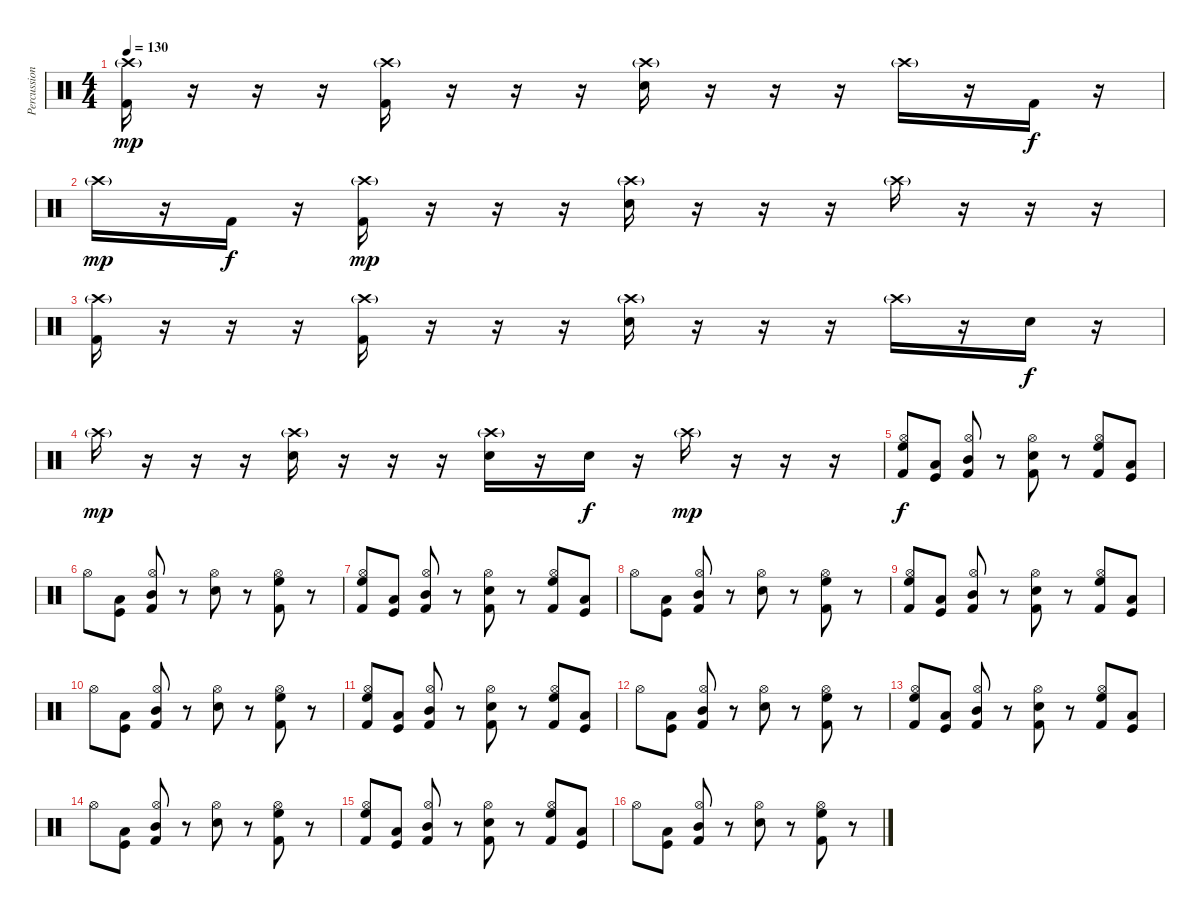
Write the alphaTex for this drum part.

\track ("Percussion" "Percussion") {instrument percussion}
\staff {score}
\articulation defaults
\ts (4 4)
\tempo 130
\clef neutral
\ks c
("Crash high (hit)"{g} "Kick (hit) 2").16{dy mp} r.16 r.16 r.16 ("Crash high (hit)"{g} "Kick (hit) 2").16 r.16 r.16 r.16 ("Crash high (hit)"{g} "Snare (hit) 2").16 r.16 r.16 r.16 "Crash high (hit)"{g}.16 r.16 "Kick (hit) 2".16{dy f} r.16 |
"Crash high (hit)"{g}.16{dy mp} r.16 "Kick (hit) 2".16{dy f} r.16 ("Crash high (hit)"{g} "Kick (hit) 2").16{dy mp} r.16 r.16 r.16 ("Crash high (hit)"{g} "Snare (hit) 2").16 r.16 r.16 r.16 "Crash high (hit)"{g}.16 r.16 r.16 r.16 |
("Crash high (hit)"{g} "Kick (hit) 2").16 r.16 r.16 r.16 ("Crash high (hit)"{g} "Kick (hit) 2").16 r.16 r.16 r.16 ("Crash high (hit)"{g} "Snare (hit) 2").16 r.16 r.16 r.16 "Crash high (hit)"{g}.16 r.16 "Snare (hit) 2".16{dy f} r.16 |
"Crash high (hit)"{g}.16{dy mp} r.16 r.16 r.16 ("Crash high (hit)"{g} "Snare (hit) 2").16 r.16 r.16 r.16 ("Crash high (hit)"{g} "Snare (hit) 2").16 r.16 "Snare (hit) 2".16{dy f} r.16 "Crash high (hit)"{g}.16{dy mp} r.16 r.16 r.16 |
("Hi-Hat (open)" "High Floor Tom (hit)" "Kick (hit) 2").8{dy f} ("Low Tom (hit)" "Kick (hit)").8 ("Hi-Hat (open)" "Mid Tom (hit)" "Kick (hit) 2").8 r.8 ("Hi-Hat (open)" "Snare (hit) 2" "Kick (hit) 2").8 r.8 ("Hi-Hat (open)" "High Floor Tom (hit)" "Kick (hit) 2").8 ("Low Tom (hit)" "Kick (hit)").8 |
"Hi-Hat (open)".8 ("Low Tom (hit)" "Kick (hit)").8 ("Hi-Hat (open)" "Mid Tom (hit)" "Kick (hit) 2").8 r.8 ("Hi-Hat (open)" "Snare (hit) 2").8 r.8 ("Hi-Hat (open)" "High Floor Tom (hit)" "Kick (hit) 2").8 r.8 |
("Hi-Hat (open)" "High Floor Tom (hit)" "Kick (hit) 2").8 ("Low Tom (hit)" "Kick (hit)").8 ("Hi-Hat (open)" "Mid Tom (hit)" "Kick (hit) 2").8 r.8 ("Hi-Hat (open)" "Snare (hit) 2" "Kick (hit) 2").8 r.8 ("Hi-Hat (open)" "High Floor Tom (hit)" "Kick (hit) 2").8 ("Low Tom (hit)" "Kick (hit)").8 |
"Hi-Hat (open)".8 ("Low Tom (hit)" "Kick (hit)").8 ("Hi-Hat (open)" "Mid Tom (hit)" "Kick (hit) 2").8 r.8 ("Hi-Hat (open)" "Snare (hit) 2").8 r.8 ("Hi-Hat (open)" "High Floor Tom (hit)" "Kick (hit) 2").8 r.8 |
("Hi-Hat (open)" "High Floor Tom (hit)" "Kick (hit) 2").8 ("Low Tom (hit)" "Kick (hit)").8 ("Hi-Hat (open)" "Mid Tom (hit)" "Kick (hit) 2").8 r.8 ("Hi-Hat (open)" "Snare (hit) 2" "Kick (hit) 2").8 r.8 ("Hi-Hat (open)" "High Floor Tom (hit)" "Kick (hit) 2").8 ("Low Tom (hit)" "Kick (hit)").8 |
"Hi-Hat (open)".8 ("Low Tom (hit)" "Kick (hit)").8 ("Hi-Hat (open)" "Mid Tom (hit)" "Kick (hit) 2").8 r.8 ("Hi-Hat (open)" "Snare (hit) 2").8 r.8 ("Hi-Hat (open)" "High Floor Tom (hit)" "Kick (hit) 2").8 r.8 |
("Hi-Hat (open)" "High Floor Tom (hit)" "Kick (hit) 2").8 ("Low Tom (hit)" "Kick (hit)").8 ("Hi-Hat (open)" "Mid Tom (hit)" "Kick (hit) 2").8 r.8 ("Hi-Hat (open)" "Snare (hit) 2" "Kick (hit) 2").8 r.8 ("Hi-Hat (open)" "High Floor Tom (hit)" "Kick (hit) 2").8 ("Low Tom (hit)" "Kick (hit)").8 |
"Hi-Hat (open)".8 ("Low Tom (hit)" "Kick (hit)").8 ("Hi-Hat (open)" "Mid Tom (hit)" "Kick (hit) 2").8 r.8 ("Hi-Hat (open)" "Snare (hit) 2").8 r.8 ("Hi-Hat (open)" "High Floor Tom (hit)" "Kick (hit) 2").8 r.8 |
("Hi-Hat (open)" "High Floor Tom (hit)" "Kick (hit) 2").8 ("Low Tom (hit)" "Kick (hit)").8 ("Hi-Hat (open)" "Mid Tom (hit)" "Kick (hit) 2").8 r.8 ("Hi-Hat (open)" "Snare (hit) 2" "Kick (hit) 2").8 r.8 ("Hi-Hat (open)" "High Floor Tom (hit)" "Kick (hit) 2").8 ("Low Tom (hit)" "Kick (hit)").8 |
"Hi-Hat (open)".8 ("Low Tom (hit)" "Kick (hit)").8 ("Hi-Hat (open)" "Mid Tom (hit)" "Kick (hit) 2").8 r.8 ("Hi-Hat (open)" "Snare (hit) 2").8 r.8 ("Hi-Hat (open)" "High Floor Tom (hit)" "Kick (hit) 2").8 r.8 |
("Hi-Hat (open)" "High Floor Tom (hit)" "Kick (hit) 2").8 ("Low Tom (hit)" "Kick (hit)").8 ("Hi-Hat (open)" "Mid Tom (hit)" "Kick (hit) 2").8 r.8 ("Hi-Hat (open)" "Snare (hit) 2" "Kick (hit) 2").8 r.8 ("Hi-Hat (open)" "High Floor Tom (hit)" "Kick (hit) 2").8 ("Low Tom (hit)" "Kick (hit)").8 |
"Hi-Hat (open)".8 ("Low Tom (hit)" "Kick (hit)").8 ("Hi-Hat (open)" "Mid Tom (hit)" "Kick (hit) 2").8 r.8 ("Hi-Hat (open)" "Snare (hit) 2").8 r.8 ("Hi-Hat (open)" "High Floor Tom (hit)" "Kick (hit) 2").8 r.8
